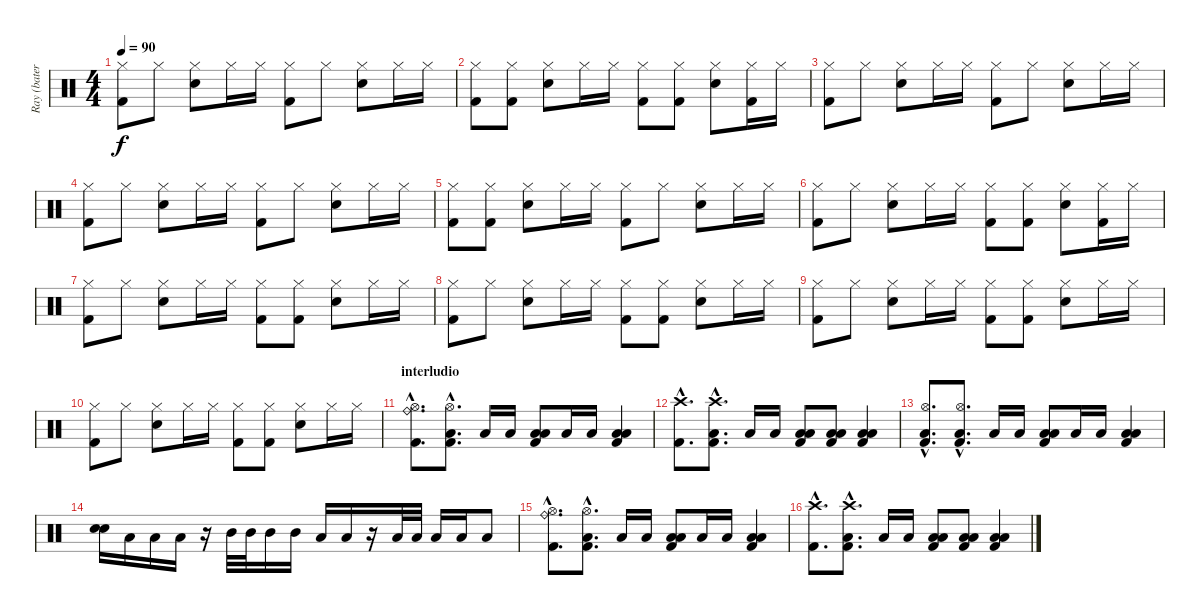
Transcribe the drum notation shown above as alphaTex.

\track ("Ray (batería)" "Ray (bater") {instrument percussion}
\staff {score}
\articulation defaults
\ts (4 4)
\tempo 90
\clef neutral
\ks c
("Hi-Hat (closed)" "Kick (hit) 2").8{dy f} "Hi-Hat (closed)".8 ("Hi-Hat (closed)" "Snare (hit) 2").8 "Hi-Hat (closed)".16 "Hi-Hat (closed)".16 ("Hi-Hat (closed)" "Kick (hit) 2").8 "Hi-Hat (closed)".8 ("Hi-Hat (closed)" "Snare (hit) 2").8 "Hi-Hat (closed)".16 "Hi-Hat (closed)".16 |
("Hi-Hat (closed)" "Kick (hit) 2").8 ("Hi-Hat (closed)" "Kick (hit) 2").8 ("Hi-Hat (closed)" "Snare (hit) 2").8 "Hi-Hat (closed)".16 "Hi-Hat (closed)".16 ("Hi-Hat (closed)" "Kick (hit) 2").8 ("Hi-Hat (closed)" "Kick (hit) 2").8 ("Hi-Hat (closed)" "Snare (hit) 2").8 ("Hi-Hat (closed)" "Kick (hit) 2").16 "Hi-Hat (closed)".16 |
("Hi-Hat (closed)" "Kick (hit) 2").8 "Hi-Hat (closed)".8 ("Hi-Hat (closed)" "Snare (hit) 2").8 "Hi-Hat (closed)".16 "Hi-Hat (closed)".16 ("Hi-Hat (closed)" "Kick (hit) 2").8 "Hi-Hat (closed)".8 ("Hi-Hat (closed)" "Snare (hit) 2").8 "Hi-Hat (closed)".16 "Hi-Hat (closed)".16 |
("Hi-Hat (closed)" "Kick (hit) 2").8 "Hi-Hat (closed)".8 ("Hi-Hat (closed)" "Snare (hit) 2").8 "Hi-Hat (closed)".16 "Hi-Hat (closed)".16 ("Hi-Hat (closed)" "Kick (hit) 2").8 "Hi-Hat (closed)".8 ("Hi-Hat (closed)" "Snare (hit) 2").8 "Hi-Hat (closed)".16 "Hi-Hat (closed)".16 |
("Hi-Hat (closed)" "Kick (hit) 2").8 ("Hi-Hat (closed)" "Kick (hit) 2").8 ("Hi-Hat (closed)" "Snare (hit) 2").8 "Hi-Hat (closed)".16 "Hi-Hat (closed)".16 ("Hi-Hat (closed)" "Kick (hit) 2").8 "Hi-Hat (closed)".8 ("Hi-Hat (closed)" "Snare (hit) 2").8 "Hi-Hat (closed)".16 "Hi-Hat (closed)".16 |
("Hi-Hat (closed)" "Kick (hit) 2").8 "Hi-Hat (closed)".8 ("Hi-Hat (closed)" "Snare (hit) 2").8 "Hi-Hat (closed)".16 "Hi-Hat (closed)".16 ("Hi-Hat (closed)" "Kick (hit) 2").8 ("Hi-Hat (closed)" "Kick (hit) 2").8 ("Hi-Hat (closed)" "Snare (hit) 2").8 ("Hi-Hat (closed)" "Kick (hit) 2").16 "Hi-Hat (closed)".16 |
("Hi-Hat (closed)" "Kick (hit) 2").8 "Hi-Hat (closed)".8 ("Hi-Hat (closed)" "Snare (hit) 2").8 "Hi-Hat (closed)".16 "Hi-Hat (closed)".16 ("Hi-Hat (closed)" "Kick (hit) 2").8 ("Hi-Hat (closed)" "Kick (hit) 2").8 ("Hi-Hat (closed)" "Snare (hit) 2").8 "Hi-Hat (closed)".16 "Hi-Hat (closed)".16 |
("Hi-Hat (closed)" "Kick (hit) 2").8 "Hi-Hat (closed)".8 ("Hi-Hat (closed)" "Snare (hit) 2").8 "Hi-Hat (closed)".16 "Hi-Hat (closed)".16 ("Hi-Hat (closed)" "Kick (hit) 2").8 ("Hi-Hat (closed)" "Kick (hit) 2").8 ("Hi-Hat (closed)" "Snare (hit) 2").8 "Hi-Hat (closed)".16 "Hi-Hat (closed)".16 |
("Hi-Hat (closed)" "Kick (hit) 2").8 "Hi-Hat (closed)".8 ("Hi-Hat (closed)" "Snare (hit) 2").8 "Hi-Hat (closed)".16 "Hi-Hat (closed)".16 ("Hi-Hat (closed)" "Kick (hit) 2").8 ("Hi-Hat (closed)" "Kick (hit) 2").8 ("Hi-Hat (closed)" "Snare (hit) 2").8 "Hi-Hat (closed)".16 "Hi-Hat (closed)".16 |
("Hi-Hat (closed)" "Kick (hit) 2").8 "Hi-Hat (closed)".8 ("Hi-Hat (closed)" "Snare (hit) 2").8 "Hi-Hat (closed)".16 "Hi-Hat (closed)".16 ("Hi-Hat (closed)" "Kick (hit) 2").8 ("Hi-Hat (closed)" "Kick (hit) 2").8 ("Hi-Hat (closed)" "Snare (hit) 2").8 "Hi-Hat (closed)".16 "Hi-Hat (closed)".16 |
\section ("" "interludio")
("Ride (bell)"{hac} "Hi-Hat (open)"{hac} "Kick (hit) 2"{hac}).8{d} ("Hi-Hat (open)"{hac} "Low Floor Tom (hit)"{hac} "Kick (hit) 2"{hac}).8{d} "Low Tom (hit)".16 "Low Tom (hit)".16 ("Low Tom (hit)" "Low Floor Tom (hit)" "Kick (hit) 2").8 "Low Tom (hit)".16 "Low Tom (hit)".16 ("Low Tom (hit)" "Low Floor Tom (hit)" "Kick (hit) 2").4 |
("Crash high (hit)"{hac} "Kick (hit) 2"{hac}).8{d} ("Crash high (hit)"{hac} "Low Floor Tom (hit)"{hac} "Kick (hit) 2"{hac}).8{d} "Low Tom (hit)".16 "Low Tom (hit)".16 ("Low Tom (hit)" "Low Floor Tom (hit)" "Kick (hit) 2").8 ("Low Tom (hit)" "Low Floor Tom (hit)" "Kick (hit) 2").8 ("Low Tom (hit)" "Low Floor Tom (hit)" "Kick (hit) 2").4 |
("Hi-Hat (open)"{hac} "Low Floor Tom (hit)"{hac} "Kick (hit) 2"{hac}).8{d} ("Hi-Hat (open)"{hac} "Low Floor Tom (hit)"{hac} "Kick (hit) 2"{hac}).8{d} "Low Tom (hit)".16 "Low Tom (hit)".16 ("Low Tom (hit)" "Low Floor Tom (hit)" "Kick (hit) 2").8 "Low Tom (hit)".16 "Low Tom (hit)".16 ("Low Tom (hit)" "Low Floor Tom (hit)" "Kick (hit) 2").4 |
("Electric Snare (hit)" "Snare (hit) 2").16 "Low Floor Tom (hit)".16 "Low Tom (hit)".16 "Low Floor Tom (hit)".16 r.16 "Mid Tom (hit)".32 "Mid Tom (hit)".32 "Mid Tom (hit)".16 "Mid Tom (hit)".16 "Low Tom (hit)".16 "Low Tom (hit)".16 r.16 "Low Tom (hit)".32 "Low Tom (hit)".32 "Low Tom (hit)".16 "Low Floor Tom (hit)".16 "Low Floor Tom (hit)".8 |
("Ride (bell)"{hac} "Hi-Hat (open)"{hac} "Kick (hit) 2"{hac}).8{d} ("Hi-Hat (open)"{hac} "Low Floor Tom (hit)"{hac} "Kick (hit) 2"{hac}).8{d} "Low Tom (hit)".16 "Low Tom (hit)".16 ("Low Tom (hit)" "Low Floor Tom (hit)" "Kick (hit) 2").8 "Low Tom (hit)".16 "Low Tom (hit)".16 ("Low Tom (hit)" "Low Floor Tom (hit)" "Kick (hit) 2").4 |
("Crash high (hit)"{hac} "Kick (hit) 2"{hac}).8{d} ("Crash high (hit)"{hac} "Low Floor Tom (hit)"{hac} "Kick (hit) 2"{hac}).8{d} "Low Tom (hit)".16 "Low Tom (hit)".16 ("Low Tom (hit)" "Low Floor Tom (hit)" "Kick (hit) 2").8 ("Low Tom (hit)" "Low Floor Tom (hit)" "Kick (hit) 2").8 ("Low Tom (hit)" "Low Floor Tom (hit)" "Kick (hit) 2").4
